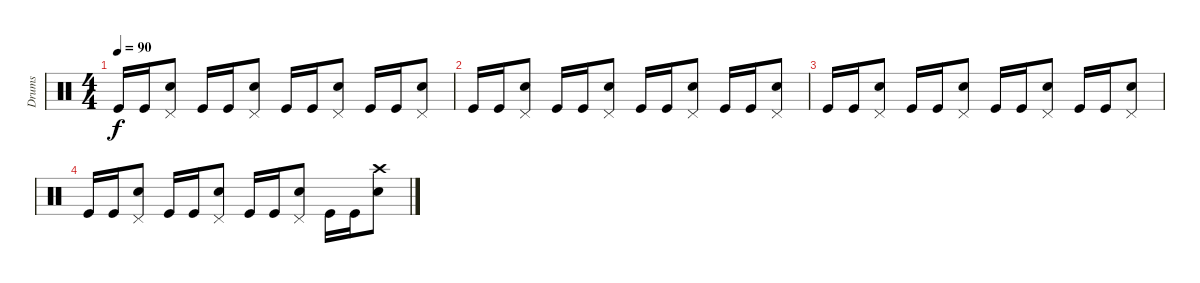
\track ("Drums" "Drums") {instrument percussion}
\staff {score}
\articulation defaults
\ts (4 4)
\tempo 90
\clef neutral
\ks c "Kick (hit)".16{dy f} "Kick (hit)".16
("Snare (hit) 2" "Pedal Hi-Hat (hit)").8 "Kick (hit)".16 "Kick (hit)".16 ("Snare (hit) 2" "Pedal Hi-Hat (hit)").8 "Kick (hit)".16 "Kick (hit)".16 ("Snare (hit) 2" "Pedal Hi-Hat (hit)").8 "Kick (hit)".16 "Kick (hit)".16 ("Snare (hit) 2" "Pedal Hi-Hat (hit)").8 |
"Kick (hit)".16 "Kick (hit)".16 ("Snare (hit) 2" "Pedal Hi-Hat (hit)").8 "Kick (hit)".16 "Kick (hit)".16 ("Snare (hit) 2" "Pedal Hi-Hat (hit)").8 "Kick (hit)".16 "Kick (hit)".16 ("Snare (hit) 2" "Pedal Hi-Hat (hit)").8 "Kick (hit)".16 "Kick (hit)".16 ("Snare (hit) 2" "Pedal Hi-Hat (hit)").8 |
"Kick (hit)".16 "Kick (hit)".16 ("Snare (hit) 2" "Pedal Hi-Hat (hit)").8 "Kick (hit)".16 "Kick (hit)".16 ("Snare (hit) 2" "Pedal Hi-Hat (hit)").8 "Kick (hit)".16 "Kick (hit)".16 ("Snare (hit) 2" "Pedal Hi-Hat (hit)").8 "Kick (hit)".16 "Kick (hit)".16 ("Snare (hit) 2" "Pedal Hi-Hat (hit)").8 |
"Kick (hit)".16 "Kick (hit)".16 ("Snare (hit) 2" "Pedal Hi-Hat (hit)").8 "Kick (hit)".16 "Kick (hit)".16 ("Snare (hit) 2" "Pedal Hi-Hat (hit)").8 "Kick (hit)".16 "Kick (hit)".16 ("Snare (hit) 2" "Pedal Hi-Hat (hit)").8 "Kick (hit)".16 "Kick (hit)".16 ("Snare (hit) 2" "Crash high (hit)").8
